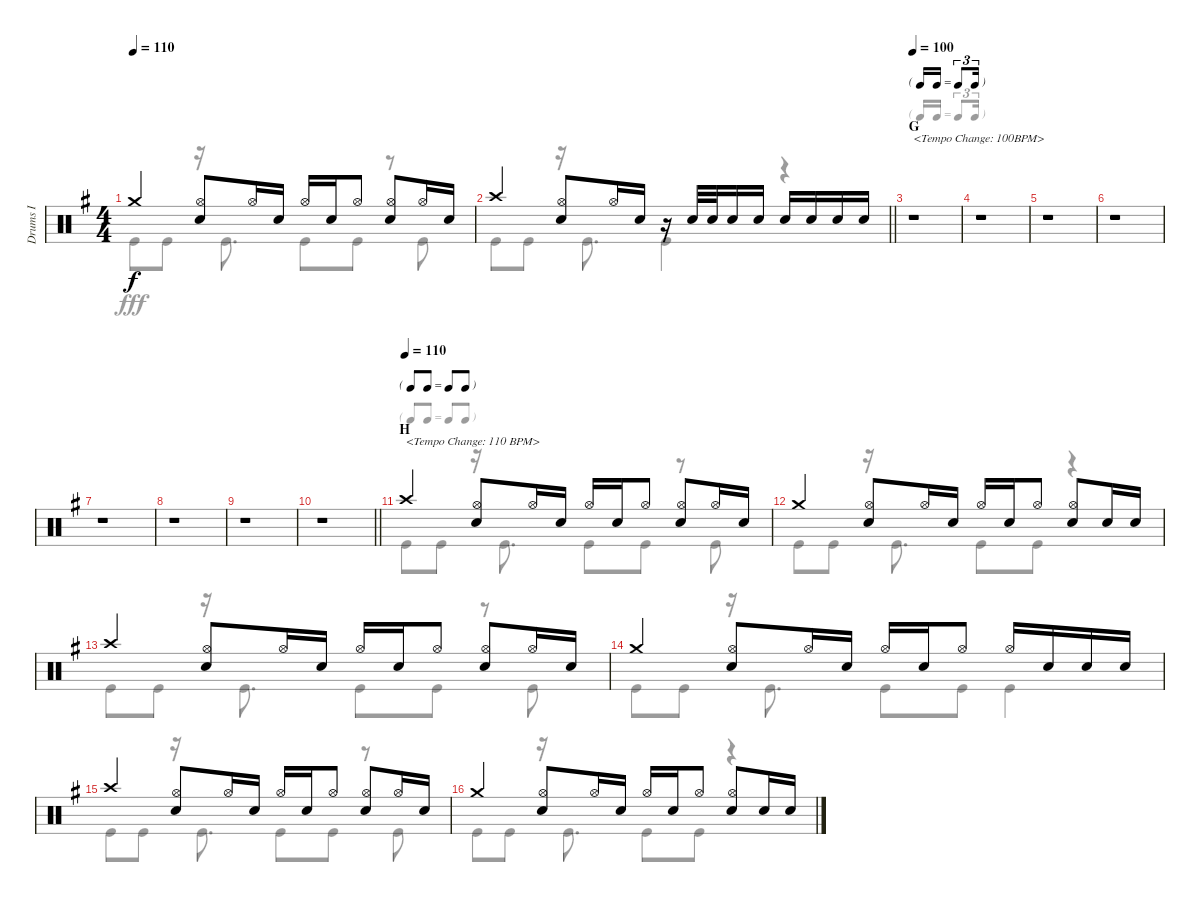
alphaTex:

\track ("Drums I" "Drums I") {instrument percussion}
\staff {score}
\articulation defaults
\voice
\ts (4 4)
\tempo 110
\clef neutral
\ks g "Crash medium (hit)".4{dy f}
("Hi-Hat (open)" "Snare (hit) 2").8 "Hi-Hat (open)".16 "Snare (hit) 2".16 "Hi-Hat (open)".16 "Snare (hit) 2".16 "Hi-Hat (open)".8 ("Hi-Hat (open)" "Snare (hit) 2").8 "Hi-Hat (open)".16 "Snare (hit) 2".16 |
\barLineRight lightlight "Crash high (hit)".4
("Hi-Hat (open)" "Snare (hit) 2").8 "Hi-Hat (open)".16 "Snare (hit) 2".16 r.16 "Snare (hit) 2".32 "Snare (hit) 2".32 "Snare (hit) 2".16 "Snare (hit) 2".16 "Snare (hit) 2".16 "Snare (hit) 2".16 "Snare (hit) 2".16 "Snare (hit) 2".16 |
\tf triplet16th
\section ("" "G")
\tempo 100
r.1{txt "<Tempo Change: 100BPM>"} |
r.1 |
r.1 |
r.1 |
r.1 |
r.1 |
r.1 |
\barLineRight lightlight
r.1 |
\tf none
\section ("" "H")
\tempo (110)
"Crash high (hit)".4{txt "<Tempo Change: 110 BPM>"} ("Hi-Hat (open)" "Snare (hit) 2").8 "Hi-Hat (open)".16 "Snare (hit) 2".16 "Hi-Hat (open)".16 "Snare (hit) 2".16 "Hi-Hat (open)".8 ("Hi-Hat (open)" "Snare (hit) 2").8 "Hi-Hat (open)".16 "Snare (hit) 2".16 |
"Crash medium (hit)".4 ("Hi-Hat (open)" "Snare (hit) 2").8 "Hi-Hat (open)".16 "Snare (hit) 2".16 "Hi-Hat (open)".16 "Snare (hit) 2".16 "Hi-Hat (open)".8 ("Hi-Hat (open)" "Snare (hit) 2").8 "Snare (hit) 2".16 "Snare (hit) 2".16 |
"Crash high (hit)".4 ("Hi-Hat (open)" "Snare (hit) 2").8 "Hi-Hat (open)".16 "Snare (hit) 2".16 "Hi-Hat (open)".16 "Snare (hit) 2".16 "Hi-Hat (open)".8 ("Hi-Hat (open)" "Snare (hit) 2").8 "Hi-Hat (open)".16 "Snare (hit) 2".16 |
"Crash medium (hit)".4 ("Hi-Hat (open)" "Snare (hit) 2").8 "Hi-Hat (open)".16 "Snare (hit) 2".16 "Hi-Hat (open)".16 "Snare (hit) 2".16 "Hi-Hat (open)".8 "Hi-Hat (open)".16 "Snare (hit) 2".16 "Snare (hit) 2".16 "Snare (hit) 2".16 |
"Crash high (hit)".4 ("Hi-Hat (open)" "Snare (hit) 2").8 "Hi-Hat (open)".16 "Snare (hit) 2".16 "Hi-Hat (open)".16 "Snare (hit) 2".16 "Hi-Hat (open)".8 ("Hi-Hat (open)" "Snare (hit) 2").8 "Hi-Hat (open)".16 "Snare (hit) 2".16 |
"Crash medium (hit)".4 ("Hi-Hat (open)" "Snare (hit) 2").8 "Hi-Hat (open)".16 "Snare (hit) 2".16 "Hi-Hat (open)".16 "Snare (hit) 2".16 "Hi-Hat (open)".8 ("Hi-Hat (open)" "Snare (hit) 2").8 "Snare (hit) 2".16 "Snare (hit) 2".16
\voice
\clef neutral
\ottava regular
\simile none
\ks g "Kick (hit)".8{dy fff} "Kick (hit)".8
r.16 "Kick (hit)".8{d} "Kick (hit)".8 "Kick (hit)".8 r.8 "Kick (hit)".8 |
\barLineRight lightlight "Kick (hit)".8 "Kick (hit)".8
r.16 "Kick (hit)".8{d} "Kick (hit)".4 r.4 |
r.1 |
r.1 |
r.1 |
r.1 |
r.1 |
r.1 |
r.1 |
\barLineRight lightlight
r.1 |
"Kick (hit)".8 "Kick (hit)".8 r.16 "Kick (hit)".8{d} "Kick (hit)".8 "Kick (hit)".8 r.8 "Kick (hit)".8 |
"Kick (hit)".8 "Kick (hit)".8 r.16 "Kick (hit)".8{d} "Kick (hit)".8 "Kick (hit)".8 r.4 |
"Kick (hit)".8 "Kick (hit)".8 r.16 "Kick (hit)".8{d} "Kick (hit)".8 "Kick (hit)".8 r.8 "Kick (hit)".8 |
"Kick (hit)".8 "Kick (hit)".8 r.16 "Kick (hit)".8{d} "Kick (hit)".8 "Kick (hit)".8 "Kick (hit)".4 |
"Kick (hit)".8 "Kick (hit)".8 r.16 "Kick (hit)".8{d} "Kick (hit)".8 "Kick (hit)".8 r.8 "Kick (hit)".8 |
"Kick (hit)".8 "Kick (hit)".8 r.16 "Kick (hit)".8{d} "Kick (hit)".8 "Kick (hit)".8 r.4
